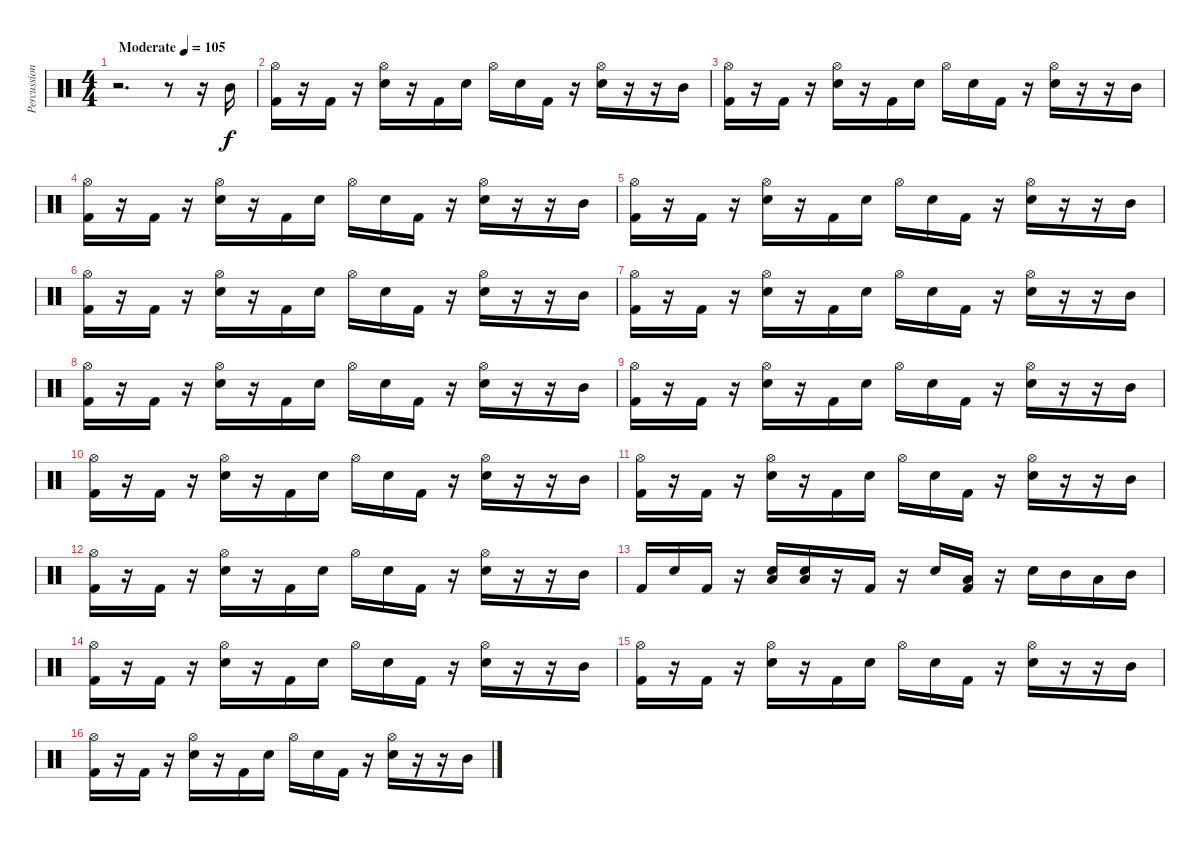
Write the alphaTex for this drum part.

\track ("Percussion" "Percussion") {instrument percussion}
\staff {score}
\articulation defaults
\ts (4 4)
\tempo (105 "Moderate")
\clef neutral
\ks c
r.2{d dy f} r.8 r.16 "Mid Tom (hit)".16 |
("Hi-Hat (open)" "Kick (hit) 2").16 r.16 "Kick (hit) 2".16 r.16 ("Hi-Hat (open)" "Snare (hit) 2").16 r.16 "Kick (hit) 2".16 "Snare (hit) 2".16 "Hi-Hat (open)".16 "Snare (hit) 2".16 "Kick (hit) 2".16 r.16 ("Hi-Hat (open)" "Snare (hit) 2").16 r.16 r.16 "Mid Tom (hit)".16 |
("Hi-Hat (open)" "Kick (hit) 2").16 r.16 "Kick (hit) 2".16 r.16 ("Hi-Hat (open)" "Snare (hit) 2").16 r.16 "Kick (hit) 2".16 "Snare (hit) 2".16 "Hi-Hat (open)".16 "Snare (hit) 2".16 "Kick (hit) 2".16 r.16 ("Hi-Hat (open)" "Snare (hit) 2").16 r.16 r.16 "Mid Tom (hit)".16 |
("Hi-Hat (open)" "Kick (hit) 2").16 r.16 "Kick (hit) 2".16 r.16 ("Hi-Hat (open)" "Snare (hit) 2").16 r.16 "Kick (hit) 2".16 "Snare (hit) 2".16 "Hi-Hat (open)".16 "Snare (hit) 2".16 "Kick (hit) 2".16 r.16 ("Hi-Hat (open)" "Snare (hit) 2").16 r.16 r.16 "Mid Tom (hit)".16 |
("Hi-Hat (open)" "Kick (hit) 2").16 r.16 "Kick (hit) 2".16 r.16 ("Hi-Hat (open)" "Snare (hit) 2").16 r.16 "Kick (hit) 2".16 "Snare (hit) 2".16 "Hi-Hat (open)".16 "Snare (hit) 2".16 "Kick (hit) 2".16 r.16 ("Hi-Hat (open)" "Snare (hit) 2").16 r.16 r.16 "Mid Tom (hit)".16 |
("Hi-Hat (open)" "Kick (hit) 2").16 r.16 "Kick (hit) 2".16 r.16 ("Hi-Hat (open)" "Snare (hit) 2").16 r.16 "Kick (hit) 2".16 "Snare (hit) 2".16 "Hi-Hat (open)".16 "Snare (hit) 2".16 "Kick (hit) 2".16 r.16 ("Hi-Hat (open)" "Snare (hit) 2").16 r.16 r.16 "Mid Tom (hit)".16 |
("Hi-Hat (open)" "Kick (hit) 2").16 r.16 "Kick (hit) 2".16 r.16 ("Hi-Hat (open)" "Snare (hit) 2").16 r.16 "Kick (hit) 2".16 "Snare (hit) 2".16 "Hi-Hat (open)".16 "Snare (hit) 2".16 "Kick (hit) 2".16 r.16 ("Hi-Hat (open)" "Snare (hit) 2").16 r.16 r.16 "Mid Tom (hit)".16 |
("Hi-Hat (open)" "Kick (hit) 2").16 r.16 "Kick (hit) 2".16 r.16 ("Hi-Hat (open)" "Snare (hit) 2").16 r.16 "Kick (hit) 2".16 "Snare (hit) 2".16 "Hi-Hat (open)".16 "Snare (hit) 2".16 "Kick (hit) 2".16 r.16 ("Hi-Hat (open)" "Snare (hit) 2").16 r.16 r.16 "Mid Tom (hit)".16 |
("Hi-Hat (open)" "Kick (hit) 2").16 r.16 "Kick (hit) 2".16 r.16 ("Hi-Hat (open)" "Snare (hit) 2").16 r.16 "Kick (hit) 2".16 "Snare (hit) 2".16 "Hi-Hat (open)".16 "Snare (hit) 2".16 "Kick (hit) 2".16 r.16 ("Hi-Hat (open)" "Snare (hit) 2").16 r.16 r.16 "Mid Tom (hit)".16 |
("Hi-Hat (open)" "Kick (hit) 2").16 r.16 "Kick (hit) 2".16 r.16 ("Hi-Hat (open)" "Snare (hit) 2").16 r.16 "Kick (hit) 2".16 "Snare (hit) 2".16 "Hi-Hat (open)".16 "Snare (hit) 2".16 "Kick (hit) 2".16 r.16 ("Hi-Hat (open)" "Snare (hit) 2").16 r.16 r.16 "Mid Tom (hit)".16 |
("Hi-Hat (open)" "Kick (hit) 2").16 r.16 "Kick (hit) 2".16 r.16 ("Hi-Hat (open)" "Snare (hit) 2").16 r.16 "Kick (hit) 2".16 "Snare (hit) 2".16 "Hi-Hat (open)".16 "Snare (hit) 2".16 "Kick (hit) 2".16 r.16 ("Hi-Hat (open)" "Snare (hit) 2").16 r.16 r.16 "Mid Tom (hit)".16 |
("Hi-Hat (open)" "Kick (hit) 2").16 r.16 "Kick (hit) 2".16 r.16 ("Hi-Hat (open)" "Snare (hit) 2").16 r.16 "Kick (hit) 2".16 "Snare (hit) 2".16 "Hi-Hat (open)".16 "Snare (hit) 2".16 "Kick (hit) 2".16 r.16 ("Hi-Hat (open)" "Snare (hit) 2").16 r.16 r.16 "Mid Tom (hit)".16 |
"Kick (hit) 2".16 "Snare (hit) 2".16 "Kick (hit) 2".16 r.16 ("Low Tom (hit)" "Snare (hit) 2").16 ("Low Tom (hit)" "Snare (hit) 2").16 r.16 "Kick (hit) 2".16 r.16 "Snare (hit) 2".16 ("Low Tom (hit)" "Kick (hit) 2").16 r.16 "Snare (hit) 2".16 "Mid Tom (hit)".16 "Low Tom (hit)".16 "Mid Tom (hit)".16 |
("Hi-Hat (open)" "Kick (hit) 2").16 r.16 "Kick (hit) 2".16 r.16 ("Hi-Hat (open)" "Snare (hit) 2").16 r.16 "Kick (hit) 2".16 "Snare (hit) 2".16 "Hi-Hat (open)".16 "Snare (hit) 2".16 "Kick (hit) 2".16 r.16 ("Hi-Hat (open)" "Snare (hit) 2").16 r.16 r.16 "Mid Tom (hit)".16 |
("Hi-Hat (open)" "Kick (hit) 2").16 r.16 "Kick (hit) 2".16 r.16 ("Hi-Hat (open)" "Snare (hit) 2").16 r.16 "Kick (hit) 2".16 "Snare (hit) 2".16 "Hi-Hat (open)".16 "Snare (hit) 2".16 "Kick (hit) 2".16 r.16 ("Hi-Hat (open)" "Snare (hit) 2").16 r.16 r.16 "Mid Tom (hit)".16 |
("Hi-Hat (open)" "Kick (hit) 2").16 r.16 "Kick (hit) 2".16 r.16 ("Hi-Hat (open)" "Snare (hit) 2").16 r.16 "Kick (hit) 2".16 "Snare (hit) 2".16 "Hi-Hat (open)".16 "Snare (hit) 2".16 "Kick (hit) 2".16 r.16 ("Hi-Hat (open)" "Snare (hit) 2").16 r.16 r.16 "Mid Tom (hit)".16
